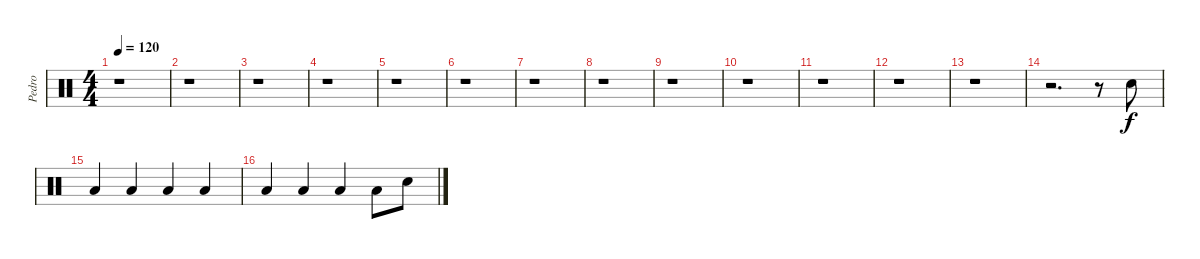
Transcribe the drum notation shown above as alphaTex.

\track ("Pedro" "Pedro") {instrument percussion}
\staff {score}
\articulation defaults
\ts (4 4)
\tempo 120
\clef neutral
\ks c
r.1{dy f} |
r.1 |
r.1 |
r.1 |
r.1 |
r.1 |
r.1 |
r.1 |
r.1 |
r.1 |
r.1 |
r.1 |
r.1 |
r.2{d} r.8 "Snare (hit) 2".8 |
"Low Floor Tom (hit)".4 "Low Floor Tom (hit)".4 "Low Floor Tom (hit)".4 "Low Floor Tom (hit)".4 |
"Low Floor Tom (hit)".4 "Low Floor Tom (hit)".4 "Low Floor Tom (hit)".4 "Low Floor Tom (hit)".8 "Snare (hit) 2".8
